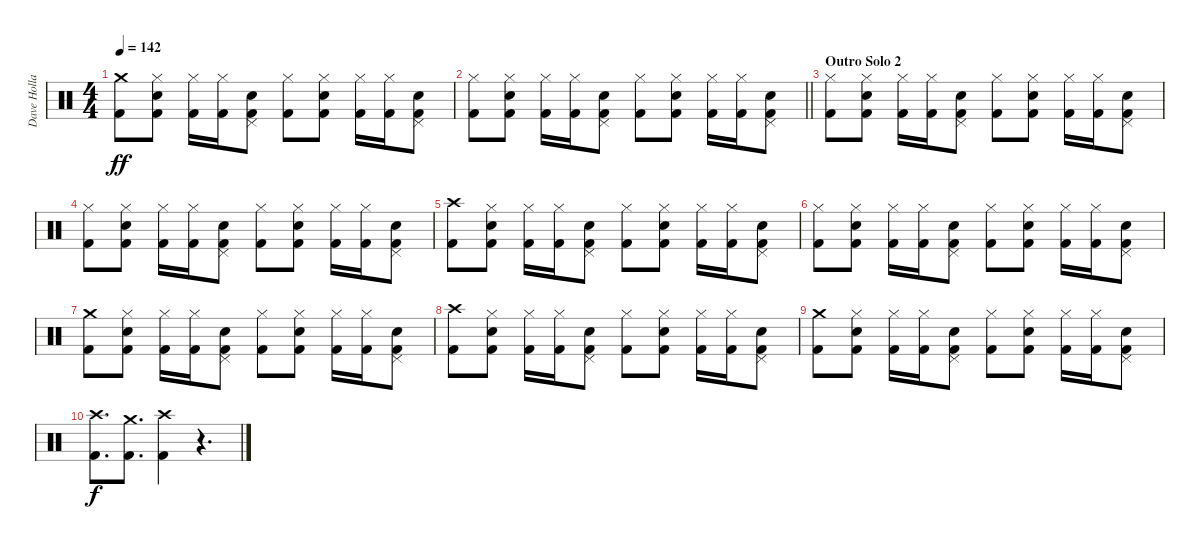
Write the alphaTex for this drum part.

\track ("Dave Holland" "Dave Holla") {instrument percussion}
\staff {score}
\articulation defaults
\ts (4 4)
\tempo 142
\clef neutral
\ks c
("Crash medium (hit)" "Kick (hit) 2").8{dy ff} ("Hi-Hat (closed)" "Snare (hit) 2" "Kick (hit) 2").8 ("Hi-Hat (closed)" "Kick (hit) 2").16 ("Hi-Hat (closed)" "Kick (hit) 2").16 ("Pedal Hi-Hat (hit)" "Snare (hit) 2" "Kick (hit) 2").8 ("Hi-Hat (closed)" "Kick (hit) 2").8 ("Hi-Hat (closed)" "Snare (hit) 2" "Kick (hit) 2").8 ("Hi-Hat (closed)" "Kick (hit) 2").16 ("Hi-Hat (closed)" "Kick (hit) 2").16 ("Pedal Hi-Hat (hit)" "Snare (hit) 2" "Kick (hit) 2").8 |
\barLineRight lightlight
("Hi-Hat (closed)" "Kick (hit) 2").8 ("Hi-Hat (closed)" "Snare (hit) 2" "Kick (hit) 2").8 ("Hi-Hat (closed)" "Kick (hit) 2").16 ("Hi-Hat (closed)" "Kick (hit) 2").16 ("Pedal Hi-Hat (hit)" "Snare (hit) 2" "Kick (hit) 2").8 ("Hi-Hat (closed)" "Kick (hit) 2").8 ("Hi-Hat (closed)" "Snare (hit) 2" "Kick (hit) 2").8 ("Hi-Hat (closed)" "Kick (hit) 2").16 ("Hi-Hat (closed)" "Kick (hit) 2").16 ("Pedal Hi-Hat (hit)" "Snare (hit) 2" "Kick (hit) 2").8 |
\section ("" "Outro Solo 2")
("Hi-Hat (closed)" "Kick (hit) 2").8 ("Hi-Hat (closed)" "Snare (hit) 2" "Kick (hit) 2").8 ("Hi-Hat (closed)" "Kick (hit) 2").16 ("Hi-Hat (closed)" "Kick (hit) 2").16 ("Pedal Hi-Hat (hit)" "Snare (hit) 2" "Kick (hit) 2").8 ("Hi-Hat (closed)" "Kick (hit) 2").8 ("Hi-Hat (closed)" "Snare (hit) 2" "Kick (hit) 2").8 ("Hi-Hat (closed)" "Kick (hit) 2").16 ("Hi-Hat (closed)" "Kick (hit) 2").16 ("Pedal Hi-Hat (hit)" "Snare (hit) 2" "Kick (hit) 2").8 |
("Hi-Hat (closed)" "Kick (hit) 2").8 ("Hi-Hat (closed)" "Snare (hit) 2" "Kick (hit) 2").8 ("Hi-Hat (closed)" "Kick (hit) 2").16 ("Hi-Hat (closed)" "Kick (hit) 2").16 ("Pedal Hi-Hat (hit)" "Snare (hit) 2" "Kick (hit) 2").8 ("Hi-Hat (closed)" "Kick (hit) 2").8 ("Hi-Hat (closed)" "Snare (hit) 2" "Kick (hit) 2").8 ("Hi-Hat (closed)" "Kick (hit) 2").16 ("Hi-Hat (closed)" "Kick (hit) 2").16 ("Pedal Hi-Hat (hit)" "Snare (hit) 2" "Kick (hit) 2").8 |
("Crash high (hit)" "Kick (hit) 2").8 ("Hi-Hat (closed)" "Snare (hit) 2" "Kick (hit) 2").8 ("Hi-Hat (closed)" "Kick (hit) 2").16 ("Hi-Hat (closed)" "Kick (hit) 2").16 ("Pedal Hi-Hat (hit)" "Snare (hit) 2" "Kick (hit) 2").8 ("Hi-Hat (closed)" "Kick (hit) 2").8 ("Hi-Hat (closed)" "Snare (hit) 2" "Kick (hit) 2").8 ("Hi-Hat (closed)" "Kick (hit) 2").16 ("Hi-Hat (closed)" "Kick (hit) 2").16 ("Pedal Hi-Hat (hit)" "Snare (hit) 2" "Kick (hit) 2").8 |
("Hi-Hat (closed)" "Kick (hit) 2").8 ("Hi-Hat (closed)" "Snare (hit) 2" "Kick (hit) 2").8 ("Hi-Hat (closed)" "Kick (hit) 2").16 ("Hi-Hat (closed)" "Kick (hit) 2").16 ("Pedal Hi-Hat (hit)" "Snare (hit) 2" "Kick (hit) 2").8 ("Hi-Hat (closed)" "Kick (hit) 2").8 ("Hi-Hat (closed)" "Snare (hit) 2" "Kick (hit) 2").8 ("Hi-Hat (closed)" "Kick (hit) 2").16 ("Hi-Hat (closed)" "Kick (hit) 2").16 ("Pedal Hi-Hat (hit)" "Snare (hit) 2" "Kick (hit) 2").8 |
("Crash medium (hit)" "Kick (hit) 2").8 ("Hi-Hat (closed)" "Snare (hit) 2" "Kick (hit) 2").8 ("Hi-Hat (closed)" "Kick (hit) 2").16 ("Hi-Hat (closed)" "Kick (hit) 2").16 ("Pedal Hi-Hat (hit)" "Snare (hit) 2" "Kick (hit) 2").8 ("Hi-Hat (closed)" "Kick (hit) 2").8 ("Hi-Hat (closed)" "Snare (hit) 2" "Kick (hit) 2").8 ("Hi-Hat (closed)" "Kick (hit) 2").16 ("Hi-Hat (closed)" "Kick (hit) 2").16 ("Pedal Hi-Hat (hit)" "Snare (hit) 2" "Kick (hit) 2").8 |
("Crash high (hit)" "Kick (hit) 2").8 ("Hi-Hat (closed)" "Snare (hit) 2" "Kick (hit) 2").8 ("Hi-Hat (closed)" "Kick (hit) 2").16 ("Hi-Hat (closed)" "Kick (hit) 2").16 ("Pedal Hi-Hat (hit)" "Snare (hit) 2" "Kick (hit) 2").8 ("Hi-Hat (closed)" "Kick (hit) 2").8 ("Hi-Hat (closed)" "Snare (hit) 2" "Kick (hit) 2").8 ("Hi-Hat (closed)" "Kick (hit) 2").16 ("Hi-Hat (closed)" "Kick (hit) 2").16 ("Pedal Hi-Hat (hit)" "Snare (hit) 2" "Kick (hit) 2").8 |
("Crash medium (hit)" "Kick (hit) 2").8 ("Hi-Hat (closed)" "Snare (hit) 2" "Kick (hit) 2").8 ("Hi-Hat (closed)" "Kick (hit) 2").16 ("Hi-Hat (closed)" "Kick (hit) 2").16 ("Pedal Hi-Hat (hit)" "Snare (hit) 2" "Kick (hit) 2").8 ("Hi-Hat (closed)" "Kick (hit) 2").8 ("Hi-Hat (closed)" "Snare (hit) 2" "Kick (hit) 2").8 ("Hi-Hat (closed)" "Kick (hit) 2").16 ("Hi-Hat (closed)" "Kick (hit) 2").16 ("Pedal Hi-Hat (hit)" "Snare (hit) 2" "Kick (hit) 2").8 |
("Crash high (hit)" "Kick (hit) 2").8{d dy f} ("Crash medium (hit)" "Kick (hit) 2").8{d} ("Crash high (hit)" "Kick (hit) 2").4 r.4{d}
